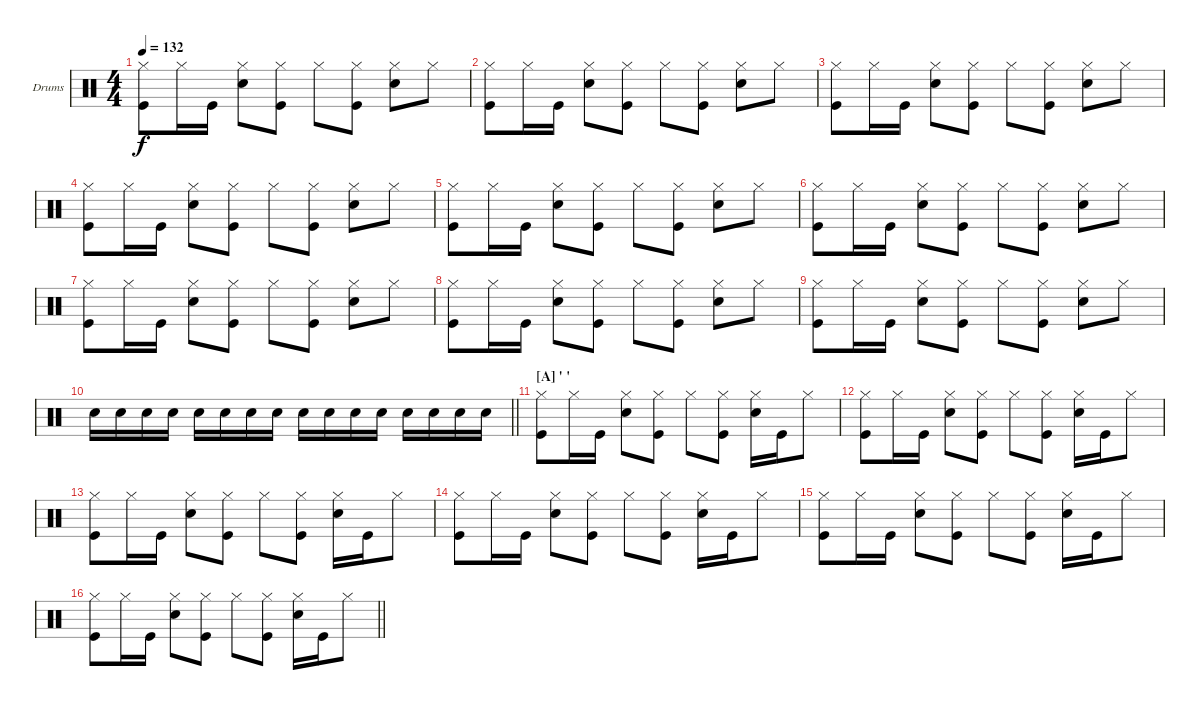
\bracketExtendMode groupsimilarinstruments
\firstSystemTrackNameOrientation horizontal
\otherSystemsTrackNameOrientation horizontal
\track ("Fabrizio Moretti" "Drums") {instrument percussion}
\staff {score}
\articulation defaults
\ts (4 4)
\tempo 132
\clef neutral
\ks c
("Hi-Hat (closed)" "Kick (hit)").8{dy f} "Hi-Hat (closed)".16 "Kick (hit)".16 ("Hi-Hat (closed)" "Snare (hit) 2").8 ("Hi-Hat (closed)" "Kick (hit)").8 "Hi-Hat (closed)".8 ("Hi-Hat (closed)" "Kick (hit)").8 ("Hi-Hat (closed)" "Snare (hit) 2").8 "Hi-Hat (closed)".8 |
("Hi-Hat (closed)" "Kick (hit)").8 "Hi-Hat (closed)".16 "Kick (hit)".16 ("Hi-Hat (closed)" "Snare (hit) 2").8 ("Hi-Hat (closed)" "Kick (hit)").8 "Hi-Hat (closed)".8 ("Hi-Hat (closed)" "Kick (hit)").8 ("Hi-Hat (closed)" "Snare (hit) 2").8 "Hi-Hat (closed)".8 |
("Hi-Hat (closed)" "Kick (hit)").8 "Hi-Hat (closed)".16 "Kick (hit)".16 ("Hi-Hat (closed)" "Snare (hit) 2").8 ("Hi-Hat (closed)" "Kick (hit)").8 "Hi-Hat (closed)".8 ("Hi-Hat (closed)" "Kick (hit)").8 ("Hi-Hat (closed)" "Snare (hit) 2").8 "Hi-Hat (closed)".8 |
("Hi-Hat (closed)" "Kick (hit)").8 "Hi-Hat (closed)".16 "Kick (hit)".16 ("Hi-Hat (closed)" "Snare (hit) 2").8 ("Hi-Hat (closed)" "Kick (hit)").8 "Hi-Hat (closed)".8 ("Hi-Hat (closed)" "Kick (hit)").8 ("Hi-Hat (closed)" "Snare (hit) 2").8 "Hi-Hat (closed)".8 |
("Hi-Hat (closed)" "Kick (hit)").8 "Hi-Hat (closed)".16 "Kick (hit)".16 ("Hi-Hat (closed)" "Snare (hit) 2").8 ("Hi-Hat (closed)" "Kick (hit)").8 "Hi-Hat (closed)".8 ("Hi-Hat (closed)" "Kick (hit)").8 ("Hi-Hat (closed)" "Snare (hit) 2").8 "Hi-Hat (closed)".8 |
("Hi-Hat (closed)" "Kick (hit)").8 "Hi-Hat (closed)".16 "Kick (hit)".16 ("Hi-Hat (closed)" "Snare (hit) 2").8 ("Hi-Hat (closed)" "Kick (hit)").8 "Hi-Hat (closed)".8 ("Hi-Hat (closed)" "Kick (hit)").8 ("Hi-Hat (closed)" "Snare (hit) 2").8 "Hi-Hat (closed)".8 |
("Hi-Hat (closed)" "Kick (hit)").8 "Hi-Hat (closed)".16 "Kick (hit)".16 ("Hi-Hat (closed)" "Snare (hit) 2").8 ("Hi-Hat (closed)" "Kick (hit)").8 "Hi-Hat (closed)".8 ("Hi-Hat (closed)" "Kick (hit)").8 ("Hi-Hat (closed)" "Snare (hit) 2").8 "Hi-Hat (closed)".8 |
("Hi-Hat (closed)" "Kick (hit)").8 "Hi-Hat (closed)".16 "Kick (hit)".16 ("Hi-Hat (closed)" "Snare (hit) 2").8 ("Hi-Hat (closed)" "Kick (hit)").8 "Hi-Hat (closed)".8 ("Hi-Hat (closed)" "Kick (hit)").8 ("Hi-Hat (closed)" "Snare (hit) 2").8 "Hi-Hat (closed)".8 |
("Hi-Hat (closed)" "Kick (hit)").8 "Hi-Hat (closed)".16 "Kick (hit)".16 ("Hi-Hat (closed)" "Snare (hit) 2").8 ("Hi-Hat (closed)" "Kick (hit)").8 "Hi-Hat (closed)".8 ("Hi-Hat (closed)" "Kick (hit)").8 ("Hi-Hat (closed)" "Snare (hit) 2").8 "Hi-Hat (closed)".8 |
\barLineRight lightlight "Snare (hit) 2".16 "Snare (hit) 2".16 "Snare (hit) 2".16 "Snare (hit) 2".16 "Snare (hit) 2".16 "Snare (hit) 2".16 "Snare (hit) 2".16 "Snare (hit) 2".16 "Snare (hit) 2".16 "Snare (hit) 2".16 "Snare (hit) 2".16 "Snare (hit) 2".16 "Snare (hit) 2".16 "Snare (hit) 2".16 "Snare (hit) 2".16 "Snare (hit) 2".16
|
\section ("A" "' '")
("Hi-Hat (closed)" "Kick (hit)").8 "Hi-Hat (closed)".16 "Kick (hit)".16 ("Hi-Hat (closed)" "Snare (hit) 2").8 ("Hi-Hat (closed)" "Kick (hit)").8 "Hi-Hat (closed)".8 ("Hi-Hat (closed)" "Kick (hit)").8 ("Hi-Hat (closed)" "Snare (hit) 2").16 "Kick (hit)".16 "Hi-Hat (closed)".8 |
("Hi-Hat (closed)" "Kick (hit)").8 "Hi-Hat (closed)".16 "Kick (hit)".16 ("Hi-Hat (closed)" "Snare (hit) 2").8 ("Hi-Hat (closed)" "Kick (hit)").8 "Hi-Hat (closed)".8 ("Hi-Hat (closed)" "Kick (hit)").8 ("Hi-Hat (closed)" "Snare (hit) 2").16 "Kick (hit)".16 "Hi-Hat (closed)".8 |
("Hi-Hat (closed)" "Kick (hit)").8 "Hi-Hat (closed)".16 "Kick (hit)".16 ("Hi-Hat (closed)" "Snare (hit) 2").8 ("Hi-Hat (closed)" "Kick (hit)").8 "Hi-Hat (closed)".8 ("Hi-Hat (closed)" "Kick (hit)").8 ("Hi-Hat (closed)" "Snare (hit) 2").16 "Kick (hit)".16 "Hi-Hat (closed)".8 |
("Hi-Hat (closed)" "Kick (hit)").8 "Hi-Hat (closed)".16 "Kick (hit)".16 ("Hi-Hat (closed)" "Snare (hit) 2").8 ("Hi-Hat (closed)" "Kick (hit)").8 "Hi-Hat (closed)".8 ("Hi-Hat (closed)" "Kick (hit)").8 ("Hi-Hat (closed)" "Snare (hit) 2").16 "Kick (hit)".16 "Hi-Hat (closed)".8 |
("Hi-Hat (closed)" "Kick (hit)").8 "Hi-Hat (closed)".16 "Kick (hit)".16 ("Hi-Hat (closed)" "Snare (hit) 2").8 ("Hi-Hat (closed)" "Kick (hit)").8 "Hi-Hat (closed)".8 ("Hi-Hat (closed)" "Kick (hit)").8 ("Hi-Hat (closed)" "Snare (hit) 2").16 "Kick (hit)".16 "Hi-Hat (closed)".8 |
\barLineRight lightlight
("Hi-Hat (closed)" "Kick (hit)").8 "Hi-Hat (closed)".16 "Kick (hit)".16 ("Hi-Hat (closed)" "Snare (hit) 2").8 ("Hi-Hat (closed)" "Kick (hit)").8 "Hi-Hat (closed)".8 ("Hi-Hat (closed)" "Kick (hit)").8 ("Hi-Hat (closed)" "Snare (hit) 2").16 "Kick (hit)".16 "Hi-Hat (closed)".8
